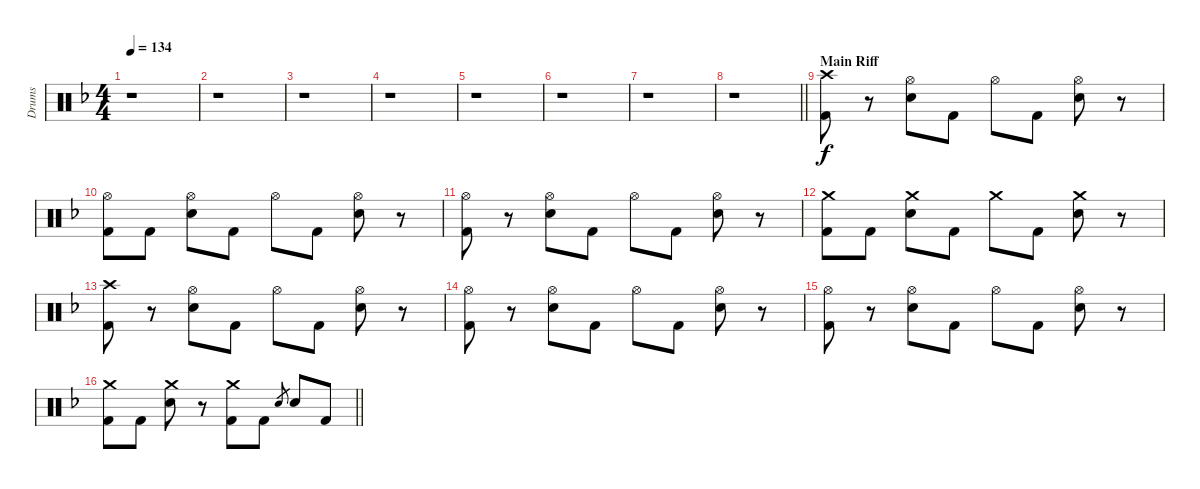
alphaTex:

\track ("Drums" "Drums") {instrument percussion}
\staff {score}
\articulation defaults
\ts (4 4)
\tempo 134
\clef neutral
\ks f
r.1{dy f} |
r.1 |
r.1 |
r.1 |
r.1 |
r.1 |
r.1 |
\barLineRight lightlight
r.1 |
\section ("" "Main Riff")
("Crash high (hit)" "Kick (hit) 2").8 r.8 ("Hi-Hat (open)" "Electric Snare (hit)").8 "Kick (hit) 2".8 "Hi-Hat (open)".8 "Kick (hit) 2".8 ("Hi-Hat (open)" "Electric Snare (hit)").8 r.8 |
("Hi-Hat (open)" "Kick (hit) 2").8 "Kick (hit) 2".8 ("Hi-Hat (open)" "Electric Snare (hit)").8 "Kick (hit) 2".8 "Hi-Hat (open)".8 "Kick (hit) 2".8 ("Hi-Hat (open)" "Electric Snare (hit)").8 r.8 |
("Hi-Hat (open)" "Kick (hit) 2").8 r.8 ("Hi-Hat (open)" "Electric Snare (hit)").8 "Kick (hit) 2".8 "Hi-Hat (open)".8 "Kick (hit) 2".8 ("Hi-Hat (open)" "Electric Snare (hit)").8 r.8 |
("Crash medium (hit)" "Kick (hit) 2").8 "Kick (hit) 2".8 ("Crash medium (hit)" "Electric Snare (hit)").8 "Kick (hit) 2".8 "Crash medium (hit)".8 "Kick (hit) 2".8 ("Crash medium (hit)" "Electric Snare (hit)").8 r.8 |
("Crash high (hit)" "Kick (hit) 2").8 r.8 ("Hi-Hat (open)" "Electric Snare (hit)").8 "Kick (hit) 2".8 "Hi-Hat (open)".8 "Kick (hit) 2".8 ("Hi-Hat (open)" "Electric Snare (hit)").8 r.8 |
("Hi-Hat (open)" "Kick (hit) 2").8 r.8 ("Hi-Hat (open)" "Electric Snare (hit)").8 "Kick (hit) 2".8 "Hi-Hat (open)".8 "Kick (hit) 2".8 ("Hi-Hat (open)" "Electric Snare (hit)").8 r.8 |
("Hi-Hat (open)" "Kick (hit) 2").8 r.8 ("Hi-Hat (open)" "Electric Snare (hit)").8 "Kick (hit) 2".8 "Hi-Hat (open)".8 "Kick (hit) 2".8 ("Hi-Hat (open)" "Electric Snare (hit)").8 r.8 |
\barLineRight lightlight
("Crash medium (hit)" "Kick (hit) 2").8 "Kick (hit) 2".8 ("Crash medium (hit)" "Electric Snare (hit)").8 r.8 ("Crash medium (hit)" "Kick (hit) 2").8 "Kick (hit) 2".8 "Electric Snare (hit)".8{gr} "Electric Snare (hit)".8 "Kick (hit) 2".8
